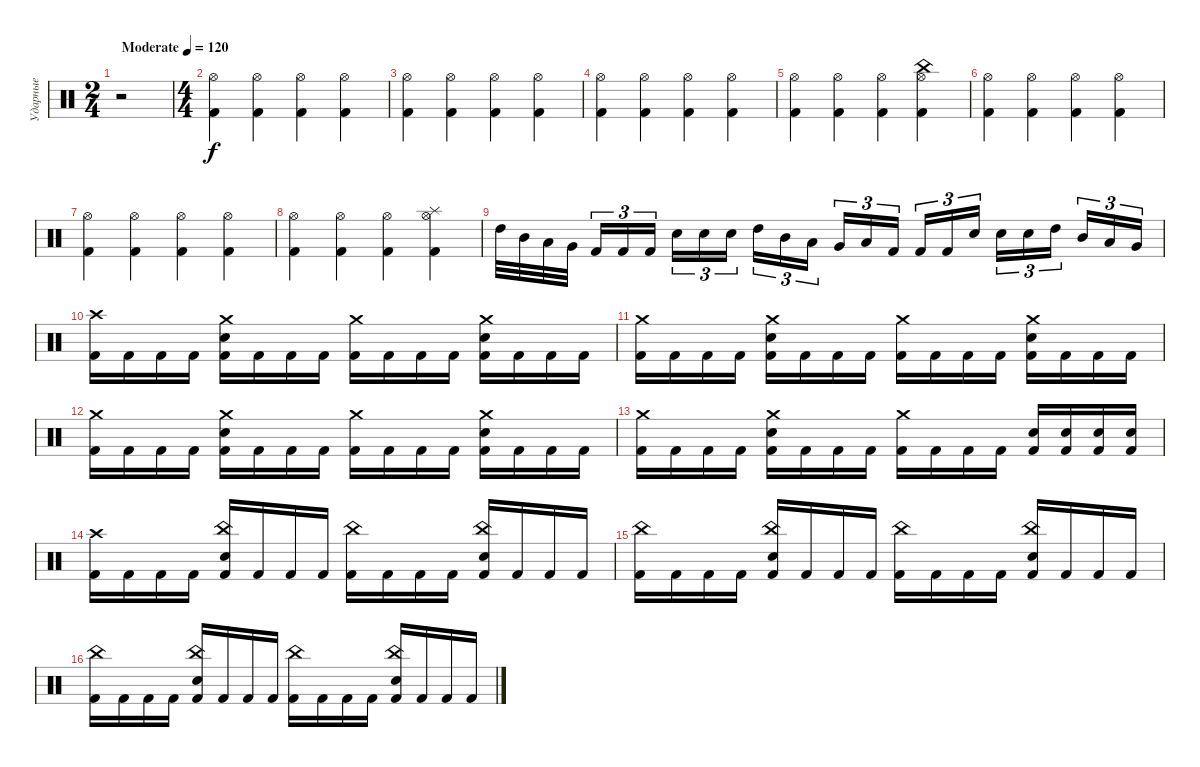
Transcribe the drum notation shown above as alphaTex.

\track ("Ударные" "Ударные") {instrument percussion}
\staff {score}
\articulation defaults
\ts (2 4)
\tempo (120 "Moderate")
\clef neutral
\ks c
r.2{dy f} |
\ts (4 4)
("Hi-Hat (open)" "Kick (hit) 2").4 ("Hi-Hat (open)" "Kick (hit) 2").4 ("Hi-Hat (open)" "Kick (hit) 2").4 ("Hi-Hat (open)" "Kick (hit) 2").4 |
("Hi-Hat (open)" "Kick (hit) 2").4 ("Hi-Hat (open)" "Kick (hit) 2").4 ("Hi-Hat (open)" "Kick (hit) 2").4 ("Hi-Hat (open)" "Kick (hit) 2").4 |
("Hi-Hat (open)" "Kick (hit) 2").4 ("Hi-Hat (open)" "Kick (hit) 2").4 ("Hi-Hat (open)" "Kick (hit) 2").4 ("Hi-Hat (open)" "Kick (hit) 2").4 |
("Hi-Hat (open)" "Kick (hit) 2").4 ("Hi-Hat (open)" "Kick (hit) 2").4 ("Hi-Hat (open)" "Kick (hit) 2").4 ("China (hit)" "Hi-Hat (open)" "Kick (hit) 2").4 |
("Hi-Hat (open)" "Kick (hit) 2").4 ("Hi-Hat (open)" "Kick (hit) 2").4 ("Hi-Hat (open)" "Kick (hit) 2").4 ("Hi-Hat (open)" "Kick (hit) 2").4 |
("Hi-Hat (open)" "Kick (hit) 2").4 ("Hi-Hat (open)" "Kick (hit) 2").4 ("Hi-Hat (open)" "Kick (hit) 2").4 ("Hi-Hat (open)" "Kick (hit) 2").4 |
("Hi-Hat (open)" "Kick (hit) 2").4 ("Hi-Hat (open)" "Kick (hit) 2").4 ("Hi-Hat (open)" "Kick (hit) 2").4 ("Splash (hit)" "Hi-Hat (open)" "Kick (hit) 2").4 |
"High Tom (hit)".32 "Mid Tom (hit)".32 "Low Tom (hit)".32 "Very Low Tom (hit)".32{beam splitsecondary} "Kick (hit) 2".16{tu (3 2)} "Kick (hit) 2".16{tu (3 2)} "Kick (hit) 2".16{tu (3 2)} "Electric Snare (hit)".16{tu (3 2)} "Electric Snare (hit)".16{tu (3 2)} "Electric Snare (hit)".16{tu (3 2) beam splitsecondary} "High Tom (hit)".16{tu (3 2)} "Mid Tom (hit)".16{tu (3 2)} "Low Tom (hit)".16{tu (3 2)} "Very Low Tom (hit)".16{tu (3 2)} "Low Floor Tom (hit)".16{tu (3 2)} "Kick (hit) 2".16{tu (3 2) beam splitsecondary} "Kick (hit) 2".16{tu (3 2)} "Kick (hit) 2".16{tu (3 2)} "Electric Snare (hit)".16{tu (3 2)} "Electric Snare (hit)".16{tu (3 2)} "Electric Snare (hit)".16{tu (3 2)} "High Tom (hit)".16{tu (3 2) beam splitsecondary} "Mid Tom (hit)".16{tu (3 2)} "Low Tom (hit)".16{tu (3 2)} "Very Low Tom (hit)".16{tu (3 2)} |
("Crash high (hit)" "Kick (hit) 2").16 "Kick (hit) 2".16 "Kick (hit) 2".16 "Kick (hit) 2".16 ("Crash medium (hit)" "Electric Snare (hit)" "Kick (hit) 2").16 "Kick (hit) 2".16 "Kick (hit) 2".16 "Kick (hit) 2".16 ("Crash medium (hit)" "Kick (hit) 2").16 "Kick (hit) 2".16 "Kick (hit) 2".16 "Kick (hit) 2".16 ("Crash medium (hit)" "Electric Snare (hit)" "Kick (hit) 2").16 "Kick (hit) 2".16 "Kick (hit) 2".16 "Kick (hit) 2".16 |
("Crash medium (hit)" "Kick (hit) 2").16 "Kick (hit) 2".16 "Kick (hit) 2".16 "Kick (hit) 2".16 ("Crash medium (hit)" "Electric Snare (hit)" "Kick (hit) 2").16 "Kick (hit) 2".16 "Kick (hit) 2".16 "Kick (hit) 2".16 ("Crash medium (hit)" "Kick (hit) 2").16 "Kick (hit) 2".16 "Kick (hit) 2".16 "Kick (hit) 2".16 ("Crash medium (hit)" "Electric Snare (hit)" "Kick (hit) 2").16 "Kick (hit) 2".16 "Kick (hit) 2".16 "Kick (hit) 2".16 |
("Crash medium (hit)" "Kick (hit) 2").16 "Kick (hit) 2".16 "Kick (hit) 2".16 "Kick (hit) 2".16 ("Crash medium (hit)" "Electric Snare (hit)" "Kick (hit) 2").16 "Kick (hit) 2".16 "Kick (hit) 2".16 "Kick (hit) 2".16 ("Crash medium (hit)" "Kick (hit) 2").16 "Kick (hit) 2".16 "Kick (hit) 2".16 "Kick (hit) 2".16 ("Crash medium (hit)" "Electric Snare (hit)" "Kick (hit) 2").16 "Kick (hit) 2".16 "Kick (hit) 2".16 "Kick (hit) 2".16 |
("Crash medium (hit)" "Kick (hit) 2").16 "Kick (hit) 2".16 "Kick (hit) 2".16 "Kick (hit) 2".16 ("Crash medium (hit)" "Electric Snare (hit)" "Kick (hit) 2").16 "Kick (hit) 2".16 "Kick (hit) 2".16 "Kick (hit) 2".16 ("Crash medium (hit)" "Kick (hit) 2").16 "Kick (hit) 2".16 "Kick (hit) 2".16 "Kick (hit) 2".16 ("Electric Snare (hit)" "Kick (hit) 2").16 ("Electric Snare (hit)" "Kick (hit) 2").16 ("Electric Snare (hit)" "Kick (hit) 2").16 ("Electric Snare (hit)" "Kick (hit) 2").16 |
("Crash high (hit)" "Kick (hit) 2").16 "Kick (hit) 2".16 "Kick (hit) 2".16 "Kick (hit) 2".16 ("China (hit)" "Electric Snare (hit)" "Kick (hit) 2").16 "Kick (hit) 2".16 "Kick (hit) 2".16 "Kick (hit) 2".16 ("China (hit)" "Kick (hit) 2").16 "Kick (hit) 2".16 "Kick (hit) 2".16 "Kick (hit) 2".16 ("China (hit)" "Electric Snare (hit)" "Kick (hit) 2").16 "Kick (hit) 2".16 "Kick (hit) 2".16 "Kick (hit) 2".16 |
("China (hit)" "Kick (hit) 2").16 "Kick (hit) 2".16 "Kick (hit) 2".16 "Kick (hit) 2".16 ("China (hit)" "Electric Snare (hit)" "Kick (hit) 2").16 "Kick (hit) 2".16 "Kick (hit) 2".16 "Kick (hit) 2".16 ("China (hit)" "Kick (hit) 2").16 "Kick (hit) 2".16 "Kick (hit) 2".16 "Kick (hit) 2".16 ("China (hit)" "Electric Snare (hit)" "Kick (hit) 2").16 "Kick (hit) 2".16 "Kick (hit) 2".16 "Kick (hit) 2".16 |
("China (hit)" "Kick (hit) 2").16 "Kick (hit) 2".16 "Kick (hit) 2".16 "Kick (hit) 2".16 ("China (hit)" "Electric Snare (hit)" "Kick (hit) 2").16 "Kick (hit) 2".16 "Kick (hit) 2".16 "Kick (hit) 2".16 ("China (hit)" "Kick (hit) 2").16 "Kick (hit) 2".16 "Kick (hit) 2".16 "Kick (hit) 2".16 ("China (hit)" "Electric Snare (hit)" "Kick (hit) 2").16 "Kick (hit) 2".16 "Kick (hit) 2".16 "Kick (hit) 2".16
